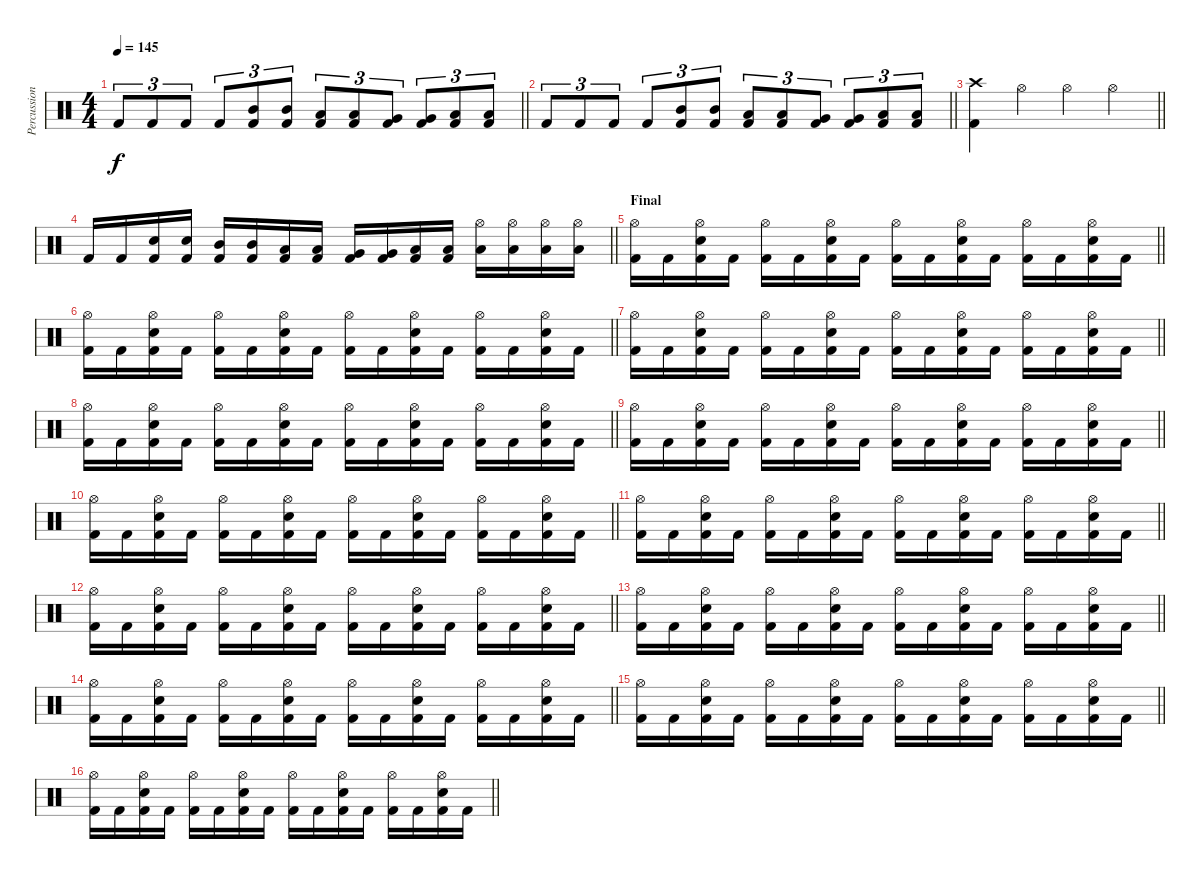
\track ("Percussion" "Percussion") {instrument percussion}
\staff {score}
\articulation defaults
\ts (4 4)
\tempo 145
\clef neutral
\barLineRight lightlight
\ks c "Kick (hit) 2".8{tu (3 2) dy f} "Kick (hit) 2".8{tu (3 2)} "Kick (hit) 2".8{tu (3 2)} "Kick (hit) 2".8{tu (3 2)}
("Mid Tom (hit)" "Kick (hit) 2").8{tu (3 2)} ("Mid Tom (hit)" "Kick (hit) 2").8{tu (3 2)} ("Low Tom (hit)" "Kick (hit) 2").8{tu (3 2)} ("Low Tom (hit)" "Kick (hit) 2").8{tu (3 2)} ("Very Low Tom (hit)" "Kick (hit) 2").8{tu (3 2)} ("Very Low Tom (hit)" "Kick (hit) 2").8{tu (3 2)} ("Low Floor Tom (hit)" "Kick (hit) 2").8{tu (3 2)} ("Low Floor Tom (hit)" "Kick (hit) 2").8{tu (3 2)} |
\barLineRight lightlight "Kick (hit) 2".8{tu (3 2)} "Kick (hit) 2".8{tu (3 2)} "Kick (hit) 2".8{tu (3 2)} "Kick (hit) 2".8{tu (3 2)}
("Mid Tom (hit)" "Kick (hit) 2").8{tu (3 2)} ("Mid Tom (hit)" "Kick (hit) 2").8{tu (3 2)} ("Low Tom (hit)" "Kick (hit) 2").8{tu (3 2)} ("Low Tom (hit)" "Kick (hit) 2").8{tu (3 2)} ("Very Low Tom (hit)" "Kick (hit) 2").8{tu (3 2)} ("Very Low Tom (hit)" "Kick (hit) 2").8{tu (3 2)} ("Low Floor Tom (hit)" "Kick (hit) 2").8{tu (3 2)} ("Low Floor Tom (hit)" "Kick (hit) 2").8{tu (3 2)} |
\barLineRight lightlight
("Crash high (hit)" "Kick (hit) 2").4 "Hi-Hat (open)".4 "Hi-Hat (open)".4 "Hi-Hat (open)".4 |
\barLineRight lightlight "Kick (hit) 2".16 "Kick (hit) 2".16
("Electric Snare (hit)" "Kick (hit) 2").16 ("Electric Snare (hit)" "Kick (hit) 2").16 ("Mid Tom (hit)" "Kick (hit) 2").16 ("Mid Tom (hit)" "Kick (hit) 2").16 ("Low Tom (hit)" "Kick (hit) 2").16 ("Low Tom (hit)" "Kick (hit) 2").16 ("Very Low Tom (hit)" "Kick (hit) 2").16 ("Very Low Tom (hit)" "Kick (hit) 2").16 ("Low Floor Tom (hit)" "Kick (hit) 2").16 ("Low Floor Tom (hit)" "Kick (hit) 2").16 ("Low Tom (hit)" "Hi-Hat (open)").16 ("Low Tom (hit)" "Hi-Hat (open)").16 ("Low Floor Tom (hit)" "Hi-Hat (open)").16 ("Low Floor Tom (hit)" "Hi-Hat (open)").16 |
\section ("" "Final")
\barLineRight lightlight
("Hi-Hat (open)" "Kick (hit) 2").16 "Kick (hit) 2".16 ("Hi-Hat (open)" "Electric Snare (hit)" "Kick (hit) 2").16 "Kick (hit) 2".16 ("Hi-Hat (open)" "Kick (hit) 2").16 "Kick (hit) 2".16 ("Hi-Hat (open)" "Electric Snare (hit)" "Kick (hit) 2").16 "Kick (hit) 2".16 ("Hi-Hat (open)" "Kick (hit) 2").16 "Kick (hit) 2".16 ("Hi-Hat (open)" "Electric Snare (hit)" "Kick (hit) 2").16 "Kick (hit) 2".16 ("Hi-Hat (open)" "Kick (hit) 2").16 "Kick (hit) 2".16 ("Hi-Hat (open)" "Electric Snare (hit)" "Kick (hit) 2").16 "Kick (hit) 2".16 |
\barLineRight lightlight
("Hi-Hat (open)" "Kick (hit) 2").16 "Kick (hit) 2".16 ("Hi-Hat (open)" "Electric Snare (hit)" "Kick (hit) 2").16 "Kick (hit) 2".16 ("Hi-Hat (open)" "Kick (hit) 2").16 "Kick (hit) 2".16 ("Hi-Hat (open)" "Electric Snare (hit)" "Kick (hit) 2").16 "Kick (hit) 2".16 ("Hi-Hat (open)" "Kick (hit) 2").16 "Kick (hit) 2".16 ("Hi-Hat (open)" "Electric Snare (hit)" "Kick (hit) 2").16 "Kick (hit) 2".16 ("Hi-Hat (open)" "Kick (hit) 2").16 "Kick (hit) 2".16 ("Hi-Hat (open)" "Electric Snare (hit)" "Kick (hit) 2").16 "Kick (hit) 2".16 |
\barLineRight lightlight
("Hi-Hat (open)" "Kick (hit) 2").16 "Kick (hit) 2".16 ("Hi-Hat (open)" "Electric Snare (hit)" "Kick (hit) 2").16 "Kick (hit) 2".16 ("Hi-Hat (open)" "Kick (hit) 2").16 "Kick (hit) 2".16 ("Hi-Hat (open)" "Electric Snare (hit)" "Kick (hit) 2").16 "Kick (hit) 2".16 ("Hi-Hat (open)" "Kick (hit) 2").16 "Kick (hit) 2".16 ("Hi-Hat (open)" "Electric Snare (hit)" "Kick (hit) 2").16 "Kick (hit) 2".16 ("Hi-Hat (open)" "Kick (hit) 2").16 "Kick (hit) 2".16 ("Hi-Hat (open)" "Electric Snare (hit)" "Kick (hit) 2").16 "Kick (hit) 2".16 |
\barLineRight lightlight
("Hi-Hat (open)" "Kick (hit) 2").16 "Kick (hit) 2".16 ("Hi-Hat (open)" "Electric Snare (hit)" "Kick (hit) 2").16 "Kick (hit) 2".16 ("Hi-Hat (open)" "Kick (hit) 2").16 "Kick (hit) 2".16 ("Hi-Hat (open)" "Electric Snare (hit)" "Kick (hit) 2").16 "Kick (hit) 2".16 ("Hi-Hat (open)" "Kick (hit) 2").16 "Kick (hit) 2".16 ("Hi-Hat (open)" "Electric Snare (hit)" "Kick (hit) 2").16 "Kick (hit) 2".16 ("Hi-Hat (open)" "Kick (hit) 2").16 "Kick (hit) 2".16 ("Hi-Hat (open)" "Electric Snare (hit)" "Kick (hit) 2").16 "Kick (hit) 2".16 |
\barLineRight lightlight
("Hi-Hat (open)" "Kick (hit) 2").16 "Kick (hit) 2".16 ("Hi-Hat (open)" "Electric Snare (hit)" "Kick (hit) 2").16 "Kick (hit) 2".16 ("Hi-Hat (open)" "Kick (hit) 2").16 "Kick (hit) 2".16 ("Hi-Hat (open)" "Electric Snare (hit)" "Kick (hit) 2").16 "Kick (hit) 2".16 ("Hi-Hat (open)" "Kick (hit) 2").16 "Kick (hit) 2".16 ("Hi-Hat (open)" "Electric Snare (hit)" "Kick (hit) 2").16 "Kick (hit) 2".16 ("Hi-Hat (open)" "Kick (hit) 2").16 "Kick (hit) 2".16 ("Hi-Hat (open)" "Electric Snare (hit)" "Kick (hit) 2").16 "Kick (hit) 2".16 |
\barLineRight lightlight
("Hi-Hat (open)" "Kick (hit) 2").16 "Kick (hit) 2".16 ("Hi-Hat (open)" "Electric Snare (hit)" "Kick (hit) 2").16 "Kick (hit) 2".16 ("Hi-Hat (open)" "Kick (hit) 2").16 "Kick (hit) 2".16 ("Hi-Hat (open)" "Electric Snare (hit)" "Kick (hit) 2").16 "Kick (hit) 2".16 ("Hi-Hat (open)" "Kick (hit) 2").16 "Kick (hit) 2".16 ("Hi-Hat (open)" "Electric Snare (hit)" "Kick (hit) 2").16 "Kick (hit) 2".16 ("Hi-Hat (open)" "Kick (hit) 2").16 "Kick (hit) 2".16 ("Hi-Hat (open)" "Electric Snare (hit)" "Kick (hit) 2").16 "Kick (hit) 2".16 |
\barLineRight lightlight
("Hi-Hat (open)" "Kick (hit) 2").16 "Kick (hit) 2".16 ("Hi-Hat (open)" "Electric Snare (hit)" "Kick (hit) 2").16 "Kick (hit) 2".16 ("Hi-Hat (open)" "Kick (hit) 2").16 "Kick (hit) 2".16 ("Hi-Hat (open)" "Electric Snare (hit)" "Kick (hit) 2").16 "Kick (hit) 2".16 ("Hi-Hat (open)" "Kick (hit) 2").16 "Kick (hit) 2".16 ("Hi-Hat (open)" "Electric Snare (hit)" "Kick (hit) 2").16 "Kick (hit) 2".16 ("Hi-Hat (open)" "Kick (hit) 2").16 "Kick (hit) 2".16 ("Hi-Hat (open)" "Electric Snare (hit)" "Kick (hit) 2").16 "Kick (hit) 2".16 |
\barLineRight lightlight
("Hi-Hat (open)" "Kick (hit) 2").16 "Kick (hit) 2".16 ("Hi-Hat (open)" "Electric Snare (hit)" "Kick (hit) 2").16 "Kick (hit) 2".16 ("Hi-Hat (open)" "Kick (hit) 2").16 "Kick (hit) 2".16 ("Hi-Hat (open)" "Electric Snare (hit)" "Kick (hit) 2").16 "Kick (hit) 2".16 ("Hi-Hat (open)" "Kick (hit) 2").16 "Kick (hit) 2".16 ("Hi-Hat (open)" "Electric Snare (hit)" "Kick (hit) 2").16 "Kick (hit) 2".16 ("Hi-Hat (open)" "Kick (hit) 2").16 "Kick (hit) 2".16 ("Hi-Hat (open)" "Electric Snare (hit)" "Kick (hit) 2").16 "Kick (hit) 2".16 |
\barLineRight lightlight
("Hi-Hat (open)" "Kick (hit) 2").16 "Kick (hit) 2".16 ("Hi-Hat (open)" "Electric Snare (hit)" "Kick (hit) 2").16 "Kick (hit) 2".16 ("Hi-Hat (open)" "Kick (hit) 2").16 "Kick (hit) 2".16 ("Hi-Hat (open)" "Electric Snare (hit)" "Kick (hit) 2").16 "Kick (hit) 2".16 ("Hi-Hat (open)" "Kick (hit) 2").16 "Kick (hit) 2".16 ("Hi-Hat (open)" "Electric Snare (hit)" "Kick (hit) 2").16 "Kick (hit) 2".16 ("Hi-Hat (open)" "Kick (hit) 2").16 "Kick (hit) 2".16 ("Hi-Hat (open)" "Electric Snare (hit)" "Kick (hit) 2").16 "Kick (hit) 2".16 |
\barLineRight lightlight
("Hi-Hat (open)" "Kick (hit) 2").16 "Kick (hit) 2".16 ("Hi-Hat (open)" "Electric Snare (hit)" "Kick (hit) 2").16 "Kick (hit) 2".16 ("Hi-Hat (open)" "Kick (hit) 2").16 "Kick (hit) 2".16 ("Hi-Hat (open)" "Electric Snare (hit)" "Kick (hit) 2").16 "Kick (hit) 2".16 ("Hi-Hat (open)" "Kick (hit) 2").16 "Kick (hit) 2".16 ("Hi-Hat (open)" "Electric Snare (hit)" "Kick (hit) 2").16 "Kick (hit) 2".16 ("Hi-Hat (open)" "Kick (hit) 2").16 "Kick (hit) 2".16 ("Hi-Hat (open)" "Electric Snare (hit)" "Kick (hit) 2").16 "Kick (hit) 2".16 |
\barLineRight lightlight
("Hi-Hat (open)" "Kick (hit) 2").16 "Kick (hit) 2".16 ("Hi-Hat (open)" "Electric Snare (hit)" "Kick (hit) 2").16 "Kick (hit) 2".16 ("Hi-Hat (open)" "Kick (hit) 2").16 "Kick (hit) 2".16 ("Hi-Hat (open)" "Electric Snare (hit)" "Kick (hit) 2").16 "Kick (hit) 2".16 ("Hi-Hat (open)" "Kick (hit) 2").16 "Kick (hit) 2".16 ("Hi-Hat (open)" "Electric Snare (hit)" "Kick (hit) 2").16 "Kick (hit) 2".16 ("Hi-Hat (open)" "Kick (hit) 2").16 "Kick (hit) 2".16 ("Hi-Hat (open)" "Electric Snare (hit)" "Kick (hit) 2").16 "Kick (hit) 2".16 |
\barLineRight lightlight
("Hi-Hat (open)" "Kick (hit) 2").16 "Kick (hit) 2".16 ("Hi-Hat (open)" "Electric Snare (hit)" "Kick (hit) 2").16 "Kick (hit) 2".16 ("Hi-Hat (open)" "Kick (hit) 2").16 "Kick (hit) 2".16 ("Hi-Hat (open)" "Electric Snare (hit)" "Kick (hit) 2").16 "Kick (hit) 2".16 ("Hi-Hat (open)" "Kick (hit) 2").16 "Kick (hit) 2".16 ("Hi-Hat (open)" "Electric Snare (hit)" "Kick (hit) 2").16 "Kick (hit) 2".16 ("Hi-Hat (open)" "Kick (hit) 2").16 "Kick (hit) 2".16 ("Hi-Hat (open)" "Electric Snare (hit)" "Kick (hit) 2").16 "Kick (hit) 2".16
